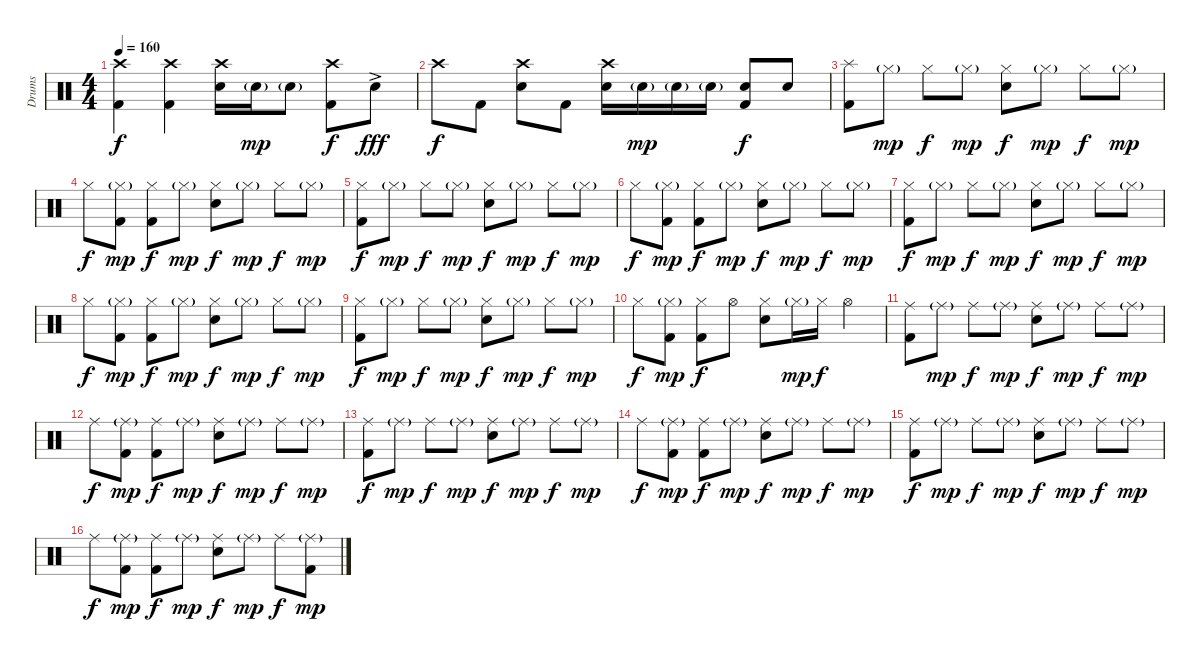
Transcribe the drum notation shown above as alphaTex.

\track ("Drums" "Drums") {instrument percussion}
\staff {score}
\articulation defaults
\ts (4 4)
\tempo 160
\clef neutral
\ks c
("Crash high (hit)" "Kick (hit) 2").4{dy f} ("Crash high (hit)" "Kick (hit) 2").4 ("Crash high (hit)" "Snare (hit) 2").16 "Snare (hit) 2"{g}.16{dy mp} "Snare (hit) 2"{g}.8 ("Crash high (hit)" "Kick (hit) 2").8{dy f} "Snare (hit) 2"{ac}.8{dy fff} |
"Crash high (hit)".8{dy f} "Kick (hit) 2".8 ("Crash high (hit)" "Snare (hit) 2").8 "Kick (hit) 2".8 ("Crash high (hit)" "Snare (hit) 2").16 "Snare (hit) 2"{g}.16{dy mp} "Snare (hit) 2"{g}.16 "Snare (hit) 2"{g}.16 ("Snare (hit) 2" "Kick (hit) 2").8{dy f} "Snare (hit) 2".8 |
("Splash (hit)" "Kick (hit) 2").8 "Hi-Hat (closed)"{g}.8{dy mp} "Hi-Hat (closed)".8{dy f} "Hi-Hat (closed)"{g}.8{dy mp} ("Hi-Hat (closed)" "Snare (hit) 2").8{dy f} "Hi-Hat (closed)"{g}.8{dy mp} "Hi-Hat (closed)".8{dy f} "Hi-Hat (closed)"{g}.8{dy mp} |
"Hi-Hat (closed)".8{dy f} ("Hi-Hat (closed)"{g} "Kick (hit) 2").8{dy mp} ("Hi-Hat (closed)" "Kick (hit) 2").8{dy f} "Hi-Hat (closed)"{g}.8{dy mp} ("Hi-Hat (closed)" "Snare (hit) 2").8{dy f} "Hi-Hat (closed)"{g}.8{dy mp} "Hi-Hat (closed)".8{dy f} "Hi-Hat (closed)"{g}.8{dy mp} |
("Hi-Hat (closed)" "Kick (hit) 2").8{dy f} "Hi-Hat (closed)"{g}.8{dy mp} "Hi-Hat (closed)".8{dy f} "Hi-Hat (closed)"{g}.8{dy mp} ("Hi-Hat (closed)" "Snare (hit) 2").8{dy f} "Hi-Hat (closed)"{g}.8{dy mp} "Hi-Hat (closed)".8{dy f} "Hi-Hat (closed)"{g}.8{dy mp} |
"Hi-Hat (closed)".8{dy f} ("Hi-Hat (closed)"{g} "Kick (hit) 2").8{dy mp} ("Hi-Hat (closed)" "Kick (hit) 2").8{dy f} "Hi-Hat (closed)"{g}.8{dy mp} ("Hi-Hat (closed)" "Snare (hit) 2").8{dy f} "Hi-Hat (closed)"{g}.8{dy mp} "Hi-Hat (closed)".8{dy f} "Hi-Hat (closed)"{g}.8{dy mp} |
("Hi-Hat (closed)" "Kick (hit) 2").8{dy f} "Hi-Hat (closed)"{g}.8{dy mp} "Hi-Hat (closed)".8{dy f} "Hi-Hat (closed)"{g}.8{dy mp} ("Hi-Hat (closed)" "Snare (hit) 2").8{dy f} "Hi-Hat (closed)"{g}.8{dy mp} "Hi-Hat (closed)".8{dy f} "Hi-Hat (closed)"{g}.8{dy mp} |
"Hi-Hat (closed)".8{dy f} ("Hi-Hat (closed)"{g} "Kick (hit) 2").8{dy mp} ("Hi-Hat (closed)" "Kick (hit) 2").8{dy f} "Hi-Hat (closed)"{g}.8{dy mp} ("Hi-Hat (closed)" "Snare (hit) 2").8{dy f} "Hi-Hat (closed)"{g}.8{dy mp} "Hi-Hat (closed)".8{dy f} "Hi-Hat (closed)"{g}.8{dy mp} |
("Hi-Hat (closed)" "Kick (hit) 2").8{dy f} "Hi-Hat (closed)"{g}.8{dy mp} "Hi-Hat (closed)".8{dy f} "Hi-Hat (closed)"{g}.8{dy mp} ("Hi-Hat (closed)" "Snare (hit) 2").8{dy f} "Hi-Hat (closed)"{g}.8{dy mp} "Hi-Hat (closed)".8{dy f} "Hi-Hat (closed)"{g}.8{dy mp} |
"Hi-Hat (closed)".8{dy f} ("Hi-Hat (closed)"{g} "Kick (hit) 2").8{dy mp} ("Hi-Hat (closed)" "Kick (hit) 2").8{dy f} "Hi-Hat (open)".8 ("Hi-Hat (closed)" "Snare (hit) 2").8 "Hi-Hat (closed)"{g}.16{dy mp} "Hi-Hat (closed)".16{dy f} "Hi-Hat (open)".4 |
("Ride (middle)" "Kick (hit) 2").8 "Ride (middle)"{g}.8{dy mp} "Ride (middle)".8{dy f} "Ride (middle)"{g}.8{dy mp} ("Ride (middle)" "Snare (hit) 2").8{dy f} "Ride (middle)"{g}.8{dy mp} "Ride (middle)".8{dy f} "Ride (middle)"{g}.8{dy mp} |
"Ride (middle)".8{dy f} ("Ride (middle)"{g} "Kick (hit) 2").8{dy mp} ("Ride (middle)" "Kick (hit) 2").8{dy f} "Ride (middle)"{g}.8{dy mp} ("Ride (middle)" "Snare (hit) 2").8{dy f} "Ride (middle)"{g}.8{dy mp} "Ride (middle)".8{dy f} "Ride (middle)"{g}.8{dy mp} |
("Ride (middle)" "Kick (hit) 2").8{dy f} "Ride (middle)"{g}.8{dy mp} "Ride (middle)".8{dy f} "Ride (middle)"{g}.8{dy mp} ("Ride (middle)" "Snare (hit) 2").8{dy f} "Ride (middle)"{g}.8{dy mp} "Ride (middle)".8{dy f} "Ride (middle)"{g}.8{dy mp} |
"Ride (middle)".8{dy f} ("Ride (middle)"{g} "Kick (hit) 2").8{dy mp} ("Ride (middle)" "Kick (hit) 2").8{dy f} "Ride (middle)"{g}.8{dy mp} ("Ride (middle)" "Snare (hit) 2").8{dy f} "Ride (middle)"{g}.8{dy mp} "Ride (middle)".8{dy f} "Ride (middle)"{g}.8{dy mp} |
("Ride (middle)" "Kick (hit) 2").8{dy f} "Ride (middle)"{g}.8{dy mp} "Ride (middle)".8{dy f} "Ride (middle)"{g}.8{dy mp} ("Ride (middle)" "Snare (hit) 2").8{dy f} "Ride (middle)"{g}.8{dy mp} "Ride (middle)".8{dy f} "Ride (middle)"{g}.8{dy mp} |
"Ride (middle)".8{dy f} ("Ride (middle)"{g} "Kick (hit) 2").8{dy mp} ("Ride (middle)" "Kick (hit) 2").8{dy f} "Ride (middle)"{g}.8{dy mp} ("Ride (middle)" "Snare (hit) 2").8{dy f} "Ride (middle)"{g}.8{dy mp} "Ride (middle)".8{dy f} ("Ride (middle)"{g} "Kick (hit) 2").8{dy mp}
